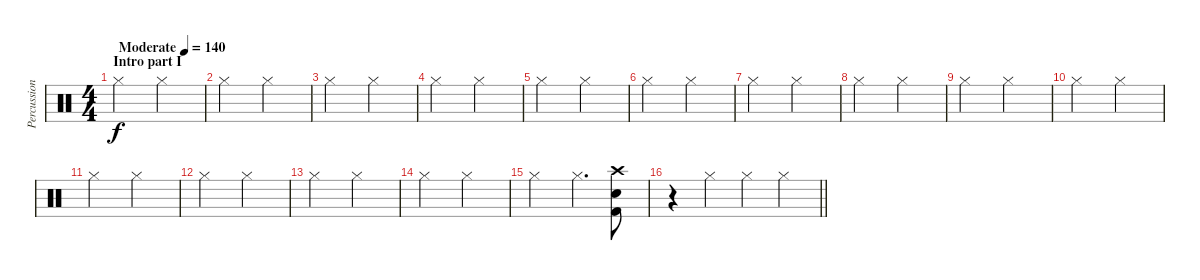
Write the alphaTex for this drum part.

\track ("Percussion" "Percussion") {instrument percussion}
\staff {score}
\articulation defaults
\ts (4 4)
\section ("" "Intro part I")
\tempo (140 "Moderate")
\clef neutral
\ks c "Hi-Hat (closed)".2{dy f} "Hi-Hat (closed)".2
|
"Hi-Hat (closed)".2 "Hi-Hat (closed)".2 |
"Hi-Hat (closed)".2 "Hi-Hat (closed)".2 |
"Hi-Hat (closed)".2 "Hi-Hat (closed)".2 |
"Hi-Hat (closed)".2 "Hi-Hat (closed)".2 |
"Hi-Hat (closed)".2 "Hi-Hat (closed)".2 |
"Hi-Hat (closed)".2 "Hi-Hat (closed)".2 |
"Hi-Hat (closed)".2 "Hi-Hat (closed)".2 |
"Hi-Hat (closed)".2 "Hi-Hat (closed)".2 |
"Hi-Hat (closed)".2 "Hi-Hat (closed)".2 |
"Hi-Hat (closed)".2 "Hi-Hat (closed)".2 |
"Hi-Hat (closed)".2 "Hi-Hat (closed)".2 |
"Hi-Hat (closed)".2 "Hi-Hat (closed)".2 |
"Hi-Hat (closed)".2 "Hi-Hat (closed)".2 |
"Hi-Hat (closed)".2 "Hi-Hat (closed)".4{d} ("Kick (hit) 2" "Electric Snare (hit)" "Crash high (hit)").8 |
\barLineRight lightlight
r.4 "Hi-Hat (closed)".4 "Hi-Hat (closed)".4 "Hi-Hat (closed)".4
